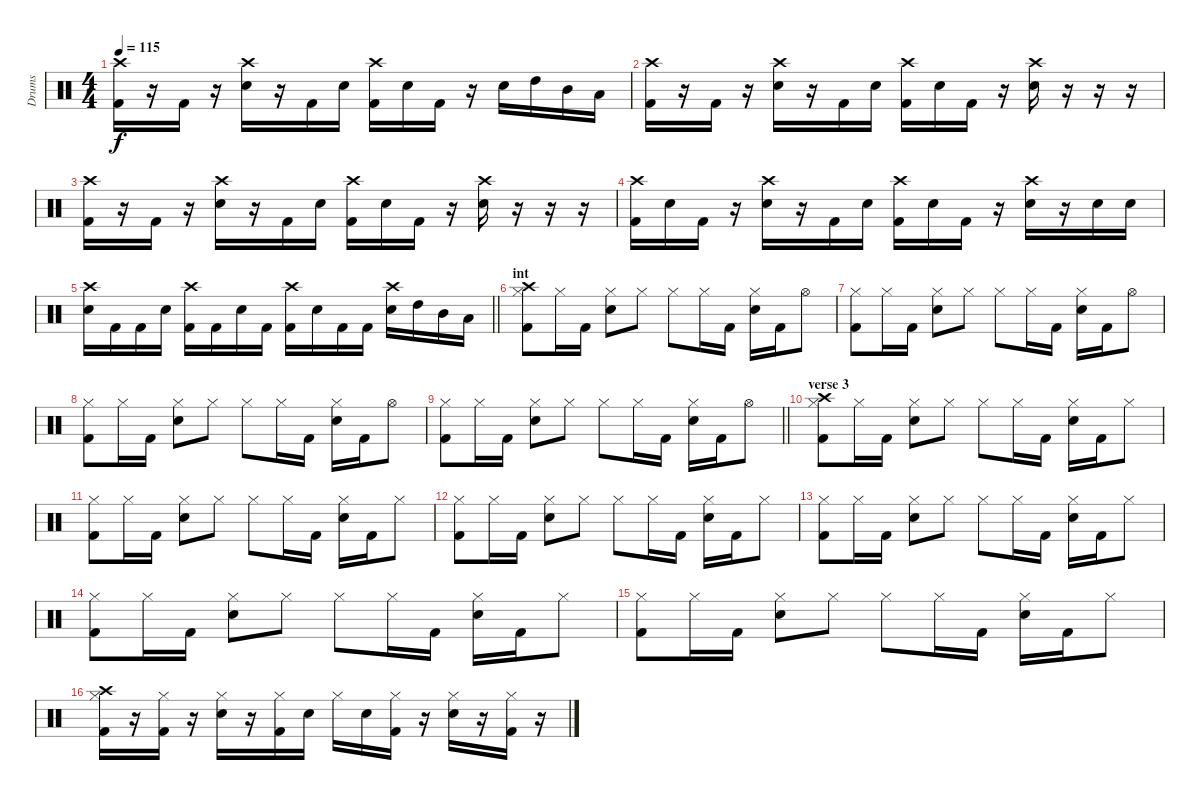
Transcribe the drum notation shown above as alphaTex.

\track ("Drums" "Drums") {instrument percussion}
\staff {score}
\articulation defaults
\ts (4 4)
\tempo 115
\clef neutral
\ks c
("Crash high (hit)" "Kick (hit) 2").16{dy f} r.16 "Kick (hit) 2".16 r.16 ("Crash high (hit)" "Snare (hit) 2").16 r.16 "Kick (hit) 2".16 "Snare (hit) 2".16 ("Crash high (hit)" "Kick (hit) 2").16 "Snare (hit) 2".16 "Kick (hit) 2".16 r.16 "Snare (hit) 2".16 "High Tom (hit)".16 "Mid Tom (hit)".16 "Low Tom (hit)".16 |
("Crash high (hit)" "Kick (hit) 2").16 r.16 "Kick (hit) 2".16 r.16 ("Crash high (hit)" "Snare (hit) 2").16 r.16 "Kick (hit) 2".16 "Snare (hit) 2".16 ("Crash high (hit)" "Kick (hit) 2").16 "Snare (hit) 2".16 "Kick (hit) 2".16 r.16 ("Crash high (hit)" "Snare (hit) 2").16 r.16 r.16 r.16 |
("Crash high (hit)" "Kick (hit) 2").16 r.16 "Kick (hit) 2".16 r.16 ("Crash high (hit)" "Snare (hit) 2").16 r.16 "Kick (hit) 2".16 "Snare (hit) 2".16 ("Crash high (hit)" "Kick (hit) 2").16 "Snare (hit) 2".16 "Kick (hit) 2".16 r.16 ("Crash high (hit)" "Snare (hit) 2").16 r.16 r.16 r.16 |
("Crash high (hit)" "Kick (hit) 2").16 "Snare (hit) 2".16 "Kick (hit) 2".16 r.16 ("Crash high (hit)" "Snare (hit) 2").16 r.16 "Kick (hit) 2".16 "Snare (hit) 2".16 ("Crash high (hit)" "Kick (hit) 2").16 "Snare (hit) 2".16 "Kick (hit) 2".16 r.16 ("Crash high (hit)" "Snare (hit) 2").16 r.16 "Snare (hit) 2".16 "Snare (hit) 2".16 |
\barLineRight lightlight
("Crash high (hit)" "Snare (hit) 2").16 "Kick (hit) 2".16 "Kick (hit) 2".16 "Snare (hit) 2".16 ("Crash high (hit)" "Kick (hit) 2").16 "Kick (hit) 2".16 "Snare (hit) 2".16 "Kick (hit) 2".16 ("Crash high (hit)" "Kick (hit) 2").16 "Snare (hit) 2".16 "Kick (hit) 2".16 "Kick (hit) 2".16 ("Crash high (hit)" "Snare (hit) 2").16 "High Tom (hit)".16 "Mid Tom (hit)".16 "Low Tom (hit)".16 |
\section ("" "int")
("Crash high (hit)" "Hi-Hat (closed)" "Kick (hit) 2").8 "Hi-Hat (closed)".16 "Kick (hit) 2".16 ("Hi-Hat (closed)" "Snare (hit) 2").8 "Hi-Hat (closed)".8 "Hi-Hat (closed)".8 "Hi-Hat (closed)".16 "Kick (hit) 2".16 ("Hi-Hat (closed)" "Snare (hit) 2").16 "Kick (hit) 2".16 "Hi-Hat (open)".8 |
("Hi-Hat (closed)" "Kick (hit) 2").8 "Hi-Hat (closed)".16 "Kick (hit) 2".16 ("Hi-Hat (closed)" "Snare (hit) 2").8 "Hi-Hat (closed)".8 "Hi-Hat (closed)".8 "Hi-Hat (closed)".16 "Kick (hit) 2".16 ("Hi-Hat (closed)" "Snare (hit) 2").16 "Kick (hit) 2".16 "Hi-Hat (open)".8 |
("Hi-Hat (closed)" "Kick (hit) 2").8 "Hi-Hat (closed)".16 "Kick (hit) 2".16 ("Hi-Hat (closed)" "Snare (hit) 2").8 "Hi-Hat (closed)".8 "Hi-Hat (closed)".8 "Hi-Hat (closed)".16 "Kick (hit) 2".16 ("Hi-Hat (closed)" "Snare (hit) 2").16 "Kick (hit) 2".16 "Hi-Hat (open)".8 |
\barLineRight lightlight
("Hi-Hat (closed)" "Kick (hit) 2").8 "Hi-Hat (closed)".16 "Kick (hit) 2".16 ("Hi-Hat (closed)" "Snare (hit) 2").8 "Hi-Hat (closed)".8 "Hi-Hat (closed)".8 "Hi-Hat (closed)".16 "Kick (hit) 2".16 ("Hi-Hat (closed)" "Snare (hit) 2").16 "Kick (hit) 2".16 "Hi-Hat (open)".8 |
\section ("" "verse 3")
("Crash high (hit)" "Hi-Hat (closed)" "Kick (hit) 2").8 "Hi-Hat (closed)".16 "Kick (hit) 2".16 ("Hi-Hat (closed)" "Snare (hit) 2").8 "Hi-Hat (closed)".8 "Hi-Hat (closed)".8 "Hi-Hat (closed)".16 "Kick (hit) 2".16 ("Hi-Hat (closed)" "Snare (hit) 2").16 "Kick (hit) 2".16 "Hi-Hat (closed)".8 |
("Hi-Hat (closed)" "Kick (hit) 2").8 "Hi-Hat (closed)".16 "Kick (hit) 2".16 ("Hi-Hat (closed)" "Snare (hit) 2").8 "Hi-Hat (closed)".8 "Hi-Hat (closed)".8 "Hi-Hat (closed)".16 "Kick (hit) 2".16 ("Hi-Hat (closed)" "Snare (hit) 2").16 "Kick (hit) 2".16 "Hi-Hat (closed)".8 |
("Hi-Hat (closed)" "Kick (hit) 2").8 "Hi-Hat (closed)".16 "Kick (hit) 2".16 ("Hi-Hat (closed)" "Snare (hit) 2").8 "Hi-Hat (closed)".8 "Hi-Hat (closed)".8 "Hi-Hat (closed)".16 "Kick (hit) 2".16 ("Hi-Hat (closed)" "Snare (hit) 2").16 "Kick (hit) 2".16 "Hi-Hat (closed)".8 |
("Hi-Hat (closed)" "Kick (hit) 2").8 "Hi-Hat (closed)".16 "Kick (hit) 2".16 ("Hi-Hat (closed)" "Snare (hit) 2").8 "Hi-Hat (closed)".8 "Hi-Hat (closed)".8 "Hi-Hat (closed)".16 "Kick (hit) 2".16 ("Hi-Hat (closed)" "Snare (hit) 2").16 "Kick (hit) 2".16 "Hi-Hat (closed)".8 |
("Hi-Hat (closed)" "Kick (hit) 2").8 "Hi-Hat (closed)".16 "Kick (hit) 2".16 ("Hi-Hat (closed)" "Snare (hit) 2").8 "Hi-Hat (closed)".8 "Hi-Hat (closed)".8 "Hi-Hat (closed)".16 "Kick (hit) 2".16 ("Hi-Hat (closed)" "Snare (hit) 2").16 "Kick (hit) 2".16 "Hi-Hat (closed)".8 |
("Hi-Hat (closed)" "Kick (hit) 2").8 "Hi-Hat (closed)".16 "Kick (hit) 2".16 ("Hi-Hat (closed)" "Snare (hit) 2").8 "Hi-Hat (closed)".8 "Hi-Hat (closed)".8 "Hi-Hat (closed)".16 "Kick (hit) 2".16 ("Hi-Hat (closed)" "Snare (hit) 2").16 "Kick (hit) 2".16 "Hi-Hat (closed)".8 |
("Crash high (hit)" "Hi-Hat (closed)" "Kick (hit) 2").16 r.16 ("Hi-Hat (closed)" "Kick (hit) 2").16 r.16 ("Hi-Hat (closed)" "Snare (hit) 2").16 r.16 ("Hi-Hat (closed)" "Kick (hit) 2").16 "Snare (hit) 2".16 "Hi-Hat (closed)".16 "Snare (hit) 2".16 ("Hi-Hat (closed)" "Kick (hit) 2").16 r.16 ("Hi-Hat (closed)" "Snare (hit) 2").16 r.16 ("Hi-Hat (closed)" "Kick (hit) 2").16 r.16
